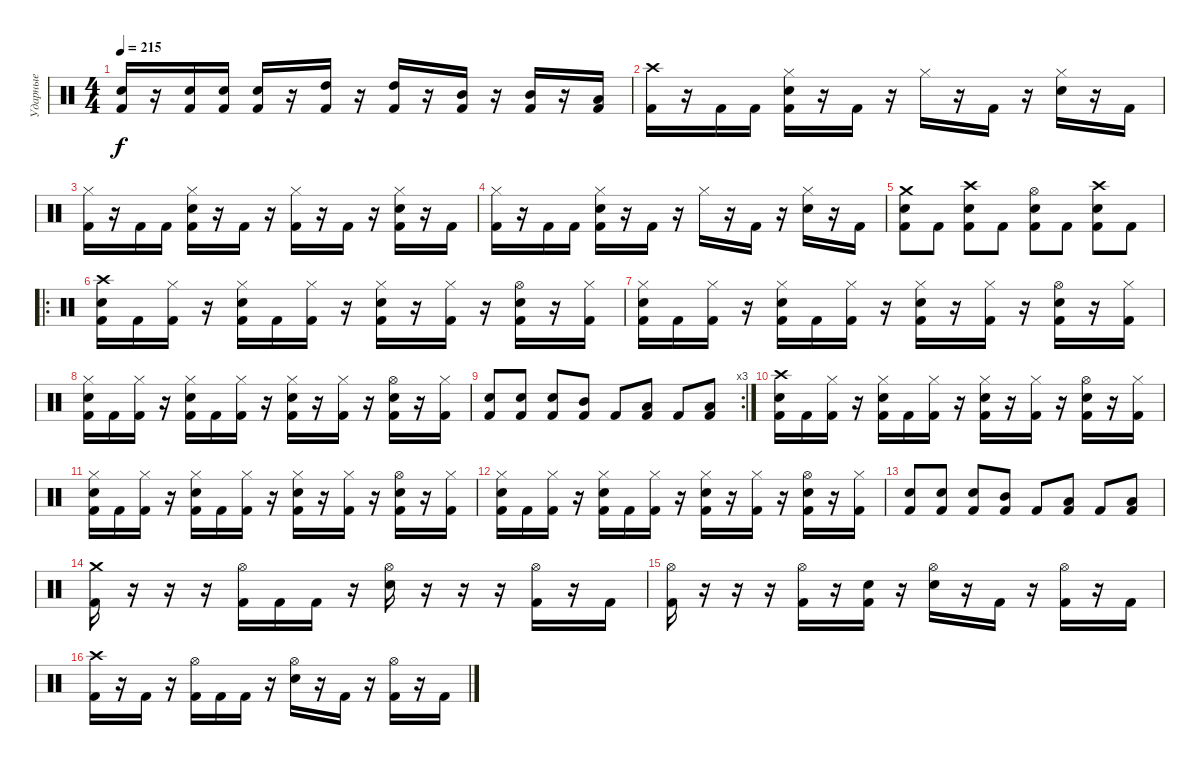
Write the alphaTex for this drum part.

\track ("Ударные" "Ударные") {instrument percussion}
\staff {score}
\articulation defaults
\ts (4 4)
\tempo 215
\clef neutral
\ks c
("Snare (hit) 2" "Kick (hit) 2").16{dy f} r.16 ("Snare (hit) 2" "Kick (hit) 2").16 ("Snare (hit) 2" "Kick (hit) 2").16 ("Snare (hit) 2" "Kick (hit) 2").16 r.16 ("High Tom (hit)" "Kick (hit) 2").16 r.16 ("High Tom (hit)" "Kick (hit) 2").16 r.16 ("Mid Tom (hit)" "Kick (hit) 2").16 r.16 ("Mid Tom (hit)" "Kick (hit) 2").16 r.16 ("Low Tom (hit)" "Kick (hit) 2").16 |
("Crash high (hit)" "Kick (hit) 2").16 r.16 "Kick (hit) 2".16 "Kick (hit) 2".16 ("Hi-Hat (closed)" "Snare (hit) 2" "Kick (hit) 2").16 r.16 "Kick (hit) 2".16 r.16 "Hi-Hat (closed)".16 r.16 "Kick (hit) 2".16 r.16 ("Hi-Hat (closed)" "Snare (hit) 2").16 r.16 "Kick (hit) 2".16 |
("Hi-Hat (closed)" "Kick (hit) 2").16 r.16 "Kick (hit) 2".16 "Kick (hit) 2".16 ("Hi-Hat (closed)" "Snare (hit) 2" "Kick (hit) 2").16 r.16 "Kick (hit) 2".16 r.16 ("Hi-Hat (closed)" "Kick (hit) 2").16 r.16 "Kick (hit) 2".16 r.16 ("Hi-Hat (closed)" "Snare (hit) 2" "Kick (hit) 2").16 r.16 "Kick (hit) 2".16 |
("Hi-Hat (closed)" "Kick (hit) 2").16 r.16 "Kick (hit) 2".16 "Kick (hit) 2".16 ("Hi-Hat (closed)" "Snare (hit) 2" "Kick (hit) 2").16 r.16 "Kick (hit) 2".16 r.16 "Hi-Hat (closed)".16 r.16 "Kick (hit) 2".16 r.16 ("Hi-Hat (closed)" "Snare (hit) 2").16 r.16 "Kick (hit) 2".16 |
("Crash medium (hit)" "Snare (hit) 2" "Kick (hit) 2").8 "Kick (hit) 2".8 ("Crash high (hit)" "Snare (hit) 2" "Kick (hit) 2").8 "Kick (hit) 2".8 ("Hi-Hat (open)" "Snare (hit) 2" "Kick (hit) 2").8 "Kick (hit) 2".8 ("Crash high (hit)" "Snare (hit) 2" "Kick (hit) 2").8 "Kick (hit) 2".8 |
\ro
("Crash high (hit)" "Snare (hit) 2" "Kick (hit) 2").16 "Kick (hit) 2".16 ("Hi-Hat (closed)" "Kick (hit) 2").16 r.16 ("Hi-Hat (closed)" "Snare (hit) 2" "Kick (hit) 2").16 "Kick (hit) 2".16 ("Hi-Hat (closed)" "Kick (hit) 2").16 r.16 ("Hi-Hat (closed)" "Snare (hit) 2" "Kick (hit) 2").16 r.16 ("Hi-Hat (closed)" "Kick (hit) 2").16 r.16 ("Hi-Hat (open)" "Snare (hit) 2" "Kick (hit) 2").16 r.16 ("Hi-Hat (closed)" "Kick (hit) 2").16 |
("Hi-Hat (closed)" "Snare (hit) 2" "Kick (hit) 2").16 "Kick (hit) 2".16 ("Hi-Hat (closed)" "Kick (hit) 2").16 r.16 ("Hi-Hat (closed)" "Snare (hit) 2" "Kick (hit) 2").16 "Kick (hit) 2".16 ("Hi-Hat (closed)" "Kick (hit) 2").16 r.16 ("Hi-Hat (closed)" "Snare (hit) 2" "Kick (hit) 2").16 r.16 ("Hi-Hat (closed)" "Kick (hit) 2").16 r.16 ("Hi-Hat (open)" "Snare (hit) 2" "Kick (hit) 2").16 r.16 ("Hi-Hat (closed)" "Kick (hit) 2").16 |
("Hi-Hat (closed)" "Snare (hit) 2" "Kick (hit) 2").16 "Kick (hit) 2".16 ("Hi-Hat (closed)" "Kick (hit) 2").16 r.16 ("Hi-Hat (closed)" "Snare (hit) 2" "Kick (hit) 2").16 "Kick (hit) 2".16 ("Hi-Hat (closed)" "Kick (hit) 2").16 r.16 ("Hi-Hat (closed)" "Snare (hit) 2" "Kick (hit) 2").16 r.16 ("Hi-Hat (closed)" "Kick (hit) 2").16 r.16 ("Hi-Hat (open)" "Snare (hit) 2" "Kick (hit) 2").16 r.16 ("Hi-Hat (closed)" "Kick (hit) 2").16 |
\rc 3
("Snare (hit) 2" "Kick (hit) 2").8 ("Snare (hit) 2" "Kick (hit) 2").8 ("Snare (hit) 2" "Kick (hit) 2").8 ("Mid Tom (hit)" "Kick (hit) 2").8 "Kick (hit) 2".8 ("Low Tom (hit)" "Kick (hit) 2").8 "Kick (hit) 2".8 ("Low Tom (hit)" "Kick (hit) 2").8 |
("Crash high (hit)" "Snare (hit) 2" "Kick (hit) 2").16 "Kick (hit) 2".16 ("Hi-Hat (closed)" "Kick (hit) 2").16 r.16 ("Hi-Hat (closed)" "Snare (hit) 2" "Kick (hit) 2").16 "Kick (hit) 2".16 ("Hi-Hat (closed)" "Kick (hit) 2").16 r.16 ("Hi-Hat (closed)" "Snare (hit) 2" "Kick (hit) 2").16 r.16 ("Hi-Hat (closed)" "Kick (hit) 2").16 r.16 ("Hi-Hat (open)" "Snare (hit) 2" "Kick (hit) 2").16 r.16 ("Hi-Hat (closed)" "Kick (hit) 2").16 |
("Hi-Hat (closed)" "Snare (hit) 2" "Kick (hit) 2").16 "Kick (hit) 2".16 ("Hi-Hat (closed)" "Kick (hit) 2").16 r.16 ("Hi-Hat (closed)" "Snare (hit) 2" "Kick (hit) 2").16 "Kick (hit) 2".16 ("Hi-Hat (closed)" "Kick (hit) 2").16 r.16 ("Hi-Hat (closed)" "Snare (hit) 2" "Kick (hit) 2").16 r.16 ("Hi-Hat (closed)" "Kick (hit) 2").16 r.16 ("Hi-Hat (open)" "Snare (hit) 2" "Kick (hit) 2").16 r.16 ("Hi-Hat (closed)" "Kick (hit) 2").16 |
("Hi-Hat (closed)" "Snare (hit) 2" "Kick (hit) 2").16 "Kick (hit) 2".16 ("Hi-Hat (closed)" "Kick (hit) 2").16 r.16 ("Hi-Hat (closed)" "Snare (hit) 2" "Kick (hit) 2").16 "Kick (hit) 2".16 ("Hi-Hat (closed)" "Kick (hit) 2").16 r.16 ("Hi-Hat (closed)" "Snare (hit) 2" "Kick (hit) 2").16 r.16 ("Hi-Hat (closed)" "Kick (hit) 2").16 r.16 ("Hi-Hat (open)" "Snare (hit) 2" "Kick (hit) 2").16 r.16 ("Hi-Hat (closed)" "Kick (hit) 2").16 |
("Snare (hit) 2" "Kick (hit) 2").8 ("Snare (hit) 2" "Kick (hit) 2").8 ("Snare (hit) 2" "Kick (hit) 2").8 ("Mid Tom (hit)" "Kick (hit) 2").8 "Kick (hit) 2".8 ("Low Tom (hit)" "Kick (hit) 2").8 "Kick (hit) 2".8 ("Low Tom (hit)" "Kick (hit) 2").8 |
("Crash medium (hit)" "Kick (hit) 2").16 r.16 r.16 r.16 ("Hi-Hat (open)" "Kick (hit) 2").16 "Kick (hit) 2".16 "Kick (hit) 2".16 r.16 ("Hi-Hat (open)" "Snare (hit) 2").16 r.16 r.16 r.16 ("Hi-Hat (open)" "Kick (hit) 2").16 r.16 "Kick (hit) 2".16 |
("Hi-Hat (open)" "Kick (hit) 2").16 r.16 r.16 r.16 ("Hi-Hat (open)" "Kick (hit) 2").16 r.16 ("Snare (hit) 2" "Kick (hit) 2").16 r.16 ("Hi-Hat (open)" "Snare (hit) 2").16 r.16 "Kick (hit) 2".16 r.16 ("Hi-Hat (open)" "Kick (hit) 2").16 r.16 "Kick (hit) 2".16 |
("Crash high (hit)" "Kick (hit) 2").16 r.16 "Kick (hit) 2".16 r.16 ("Hi-Hat (open)" "Kick (hit) 2").16 "Kick (hit) 2".16 "Kick (hit) 2".16 r.16 ("Hi-Hat (open)" "Snare (hit) 2").16 r.16 "Kick (hit) 2".16 r.16 ("Hi-Hat (open)" "Kick (hit) 2").16 r.16 "Kick (hit) 2".16
